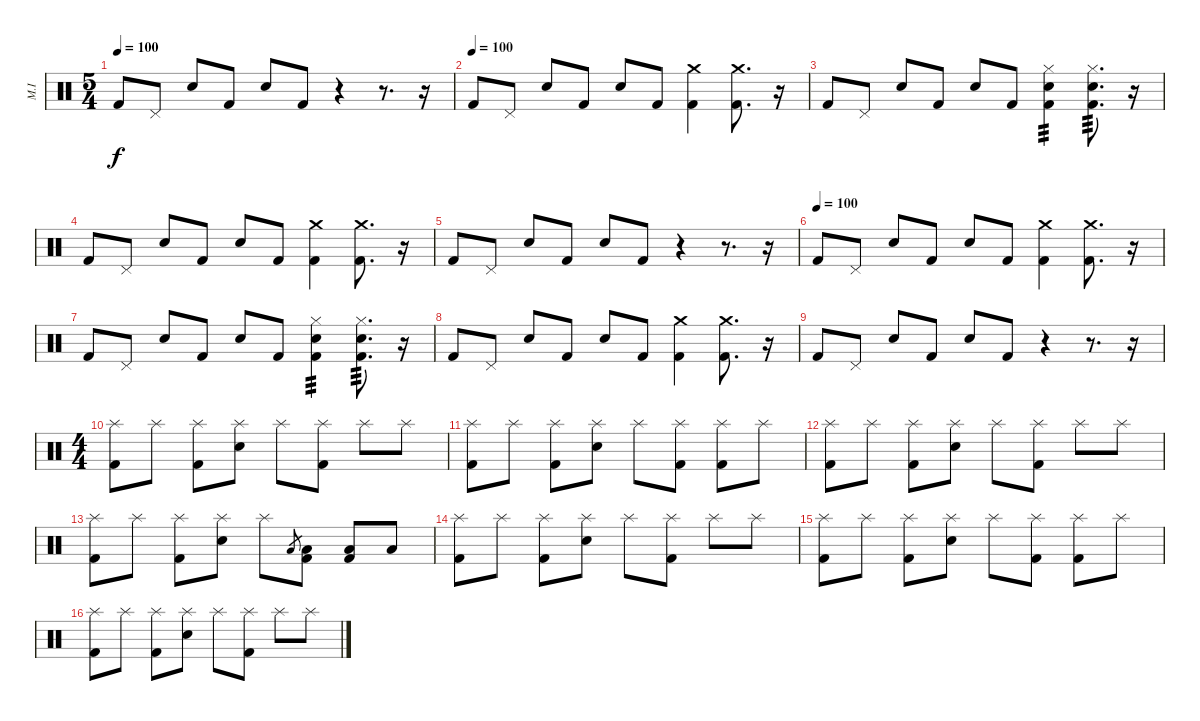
\track ("M.I" "M.I") {instrument percussion}
\staff {score}
\articulation defaults
\ts (5 4)
\tempo 100
\clef neutral
\ks c "Kick (hit) 2".8{dy f} "Pedal Hi-Hat (hit)".8 "Snare (hit) 2".8 "Kick (hit) 2".8 "Snare (hit) 2".8 "Kick (hit) 2".8
r.4 r.8{d} r.16 |
\tempo (100)
"Kick (hit) 2".8 "Pedal Hi-Hat (hit)".8 "Snare (hit) 2".8 "Kick (hit) 2".8 "Snare (hit) 2".8 "Kick (hit) 2".8 ("Crash medium (hit)" "Kick (hit) 2").4 ("Crash medium (hit)" "Kick (hit) 2").8{d} r.16 |
"Kick (hit) 2".8 "Pedal Hi-Hat (hit)".8 "Snare (hit) 2".8 "Kick (hit) 2".8 "Snare (hit) 2".8 "Kick (hit) 2".8 ("Hi-Hat (closed)" "Snare (hit) 2" "Kick (hit) 2").4{tp 3} ("Hi-Hat (closed)" "Snare (hit) 2" "Kick (hit) 2").8{d tp 3} r.16 |
"Kick (hit) 2".8 "Pedal Hi-Hat (hit)".8 "Snare (hit) 2".8 "Kick (hit) 2".8 "Snare (hit) 2".8 "Kick (hit) 2".8 ("Crash medium (hit)" "Kick (hit) 2").4 ("Crash medium (hit)" "Kick (hit) 2").8{d} r.16 |
"Kick (hit) 2".8 "Pedal Hi-Hat (hit)".8 "Snare (hit) 2".8 "Kick (hit) 2".8 "Snare (hit) 2".8 "Kick (hit) 2".8 r.4 r.8{d} r.16 |
\tempo (100)
"Kick (hit) 2".8 "Pedal Hi-Hat (hit)".8 "Snare (hit) 2".8 "Kick (hit) 2".8 "Snare (hit) 2".8 "Kick (hit) 2".8 ("Crash medium (hit)" "Kick (hit) 2").4 ("Crash medium (hit)" "Kick (hit) 2").8{d} r.16 |
"Kick (hit) 2".8 "Pedal Hi-Hat (hit)".8 "Snare (hit) 2".8 "Kick (hit) 2".8 "Snare (hit) 2".8 "Kick (hit) 2".8 ("Hi-Hat (closed)" "Snare (hit) 2" "Kick (hit) 2").4{tp 3} ("Hi-Hat (closed)" "Snare (hit) 2" "Kick (hit) 2").8{d tp 3} r.16 |
"Kick (hit) 2".8 "Pedal Hi-Hat (hit)".8 "Snare (hit) 2".8 "Kick (hit) 2".8 "Snare (hit) 2".8 "Kick (hit) 2".8 ("Crash medium (hit)" "Kick (hit) 2").4 ("Crash medium (hit)" "Kick (hit) 2").8{d} r.16 |
"Kick (hit) 2".8 "Pedal Hi-Hat (hit)".8 "Snare (hit) 2".8 "Kick (hit) 2".8 "Snare (hit) 2".8 "Kick (hit) 2".8 r.4 r.8{d} r.16 |
\ts (4 4)
("Splash (hit)" "Kick (hit) 2").8 "Splash (hit)".8 ("Splash (hit)" "Kick (hit) 2").8 ("Splash (hit)" "Snare (hit) 2").8 "Splash (hit)".8 ("Splash (hit)" "Kick (hit) 2").8 "Splash (hit)".8 "Splash (hit)".8 |
("Splash (hit)" "Kick (hit) 2").8 "Splash (hit)".8 ("Splash (hit)" "Kick (hit) 2").8 ("Splash (hit)" "Snare (hit) 2").8 "Splash (hit)".8 ("Splash (hit)" "Kick (hit) 2").8 ("Splash (hit)" "Kick (hit) 2").8 "Splash (hit)".8 |
("Splash (hit)" "Kick (hit) 2").8 "Splash (hit)".8 ("Splash (hit)" "Kick (hit) 2").8 ("Splash (hit)" "Snare (hit) 2").8 "Splash (hit)".8 ("Splash (hit)" "Kick (hit) 2").8 "Splash (hit)".8 "Splash (hit)".8 |
("Splash (hit)" "Kick (hit) 2").8 "Splash (hit)".8 ("Splash (hit)" "Kick (hit) 2").8 ("Splash (hit)" "Snare (hit) 2").8 "Splash (hit)".8 "Low Tom (hit)".8{gr} ("Low Tom (hit)" "Kick (hit) 2").8 ("Low Floor Tom (hit)" "Kick (hit) 2").8 "Low Floor Tom (hit)".8 |
("Splash (hit)" "Kick (hit) 2").8 "Splash (hit)".8 ("Splash (hit)" "Kick (hit) 2").8 ("Splash (hit)" "Snare (hit) 2").8 "Splash (hit)".8 ("Splash (hit)" "Kick (hit) 2").8 "Splash (hit)".8 "Splash (hit)".8 |
("Splash (hit)" "Kick (hit) 2").8 "Splash (hit)".8 ("Splash (hit)" "Kick (hit) 2").8 ("Splash (hit)" "Snare (hit) 2").8 "Splash (hit)".8 ("Splash (hit)" "Kick (hit) 2").8 ("Splash (hit)" "Kick (hit) 2").8 "Splash (hit)".8 |
("Splash (hit)" "Kick (hit) 2").8 "Splash (hit)".8 ("Splash (hit)" "Kick (hit) 2").8 ("Splash (hit)" "Snare (hit) 2").8 "Splash (hit)".8 ("Splash (hit)" "Kick (hit) 2").8 "Splash (hit)".8 "Splash (hit)".8
